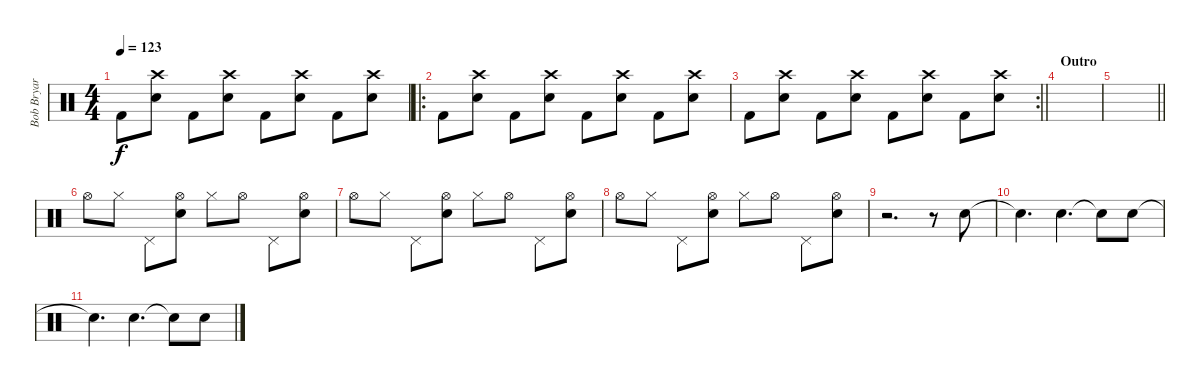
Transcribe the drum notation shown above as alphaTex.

\track ("Bob Bryar" "Bob Bryar") {instrument percussion}
\staff {score}
\articulation defaults
\ts (4 4)
\tempo 123
\clef neutral
\ks c "Kick (hit) 2".8{dy f}
("Crash high (hit)" "Snare (hit) 2").8 "Kick (hit) 2".8 ("Crash high (hit)" "Snare (hit) 2").8 "Kick (hit) 2".8 ("Crash high (hit)" "Snare (hit) 2").8 "Kick (hit) 2".8 ("Crash high (hit)" "Snare (hit) 2").8 |
\ro "Kick (hit) 2".8
("Crash high (hit)" "Snare (hit) 2").8 "Kick (hit) 2".8 ("Crash high (hit)" "Snare (hit) 2").8 "Kick (hit) 2".8 ("Crash high (hit)" "Snare (hit) 2").8 "Kick (hit) 2".8 ("Crash high (hit)" "Snare (hit) 2").8 |
\rc 2
\barLineRight lightlight "Kick (hit) 2".8
("Crash high (hit)" "Snare (hit) 2").8 "Kick (hit) 2".8 ("Crash high (hit)" "Snare (hit) 2").8 "Kick (hit) 2".8 ("Crash high (hit)" "Snare (hit) 2").8 "Kick (hit) 2".8 ("Crash high (hit)" "Snare (hit) 2").8 |
\section ("" "Outro")
|
\barLineRight lightlight
|
"Hi-Hat (open)".8 "Hi-Hat (closed)".8 "Pedal Hi-Hat (hit)".8 ("Hi-Hat (open)" "Hand Clap (hit)").8 "Hi-Hat (closed)".8 "Hi-Hat (open)".8 "Pedal Hi-Hat (hit)".8 ("Hi-Hat (open)" "Hand Clap (hit)").8 |
"Hi-Hat (open)".8 "Hi-Hat (closed)".8 "Pedal Hi-Hat (hit)".8 ("Hi-Hat (open)" "Hand Clap (hit)").8 "Hi-Hat (closed)".8 "Hi-Hat (open)".8 "Pedal Hi-Hat (hit)".8 ("Hi-Hat (open)" "Hand Clap (hit)").8 |
"Hi-Hat (open)".8 "Hi-Hat (closed)".8 "Pedal Hi-Hat (hit)".8 ("Hi-Hat (open)" "Hand Clap (hit)").8 "Hi-Hat (closed)".8 "Hi-Hat (open)".8 "Pedal Hi-Hat (hit)".8 ("Hi-Hat (open)" "Hand Clap (hit)").8 |
r.2{d} r.8 "Hand Clap (hit)".8 |
"Hand Clap (hit)"{t}.4{d} "Hand Clap (hit)".4{d} "Snare (hit)"{t}.8 "Hand Clap (hit)".8 |
"Hand Clap (hit)"{t}.4{d} "Hand Clap (hit)".4{d} "Snare (hit)"{t}.8 "Hand Clap (hit)".8
